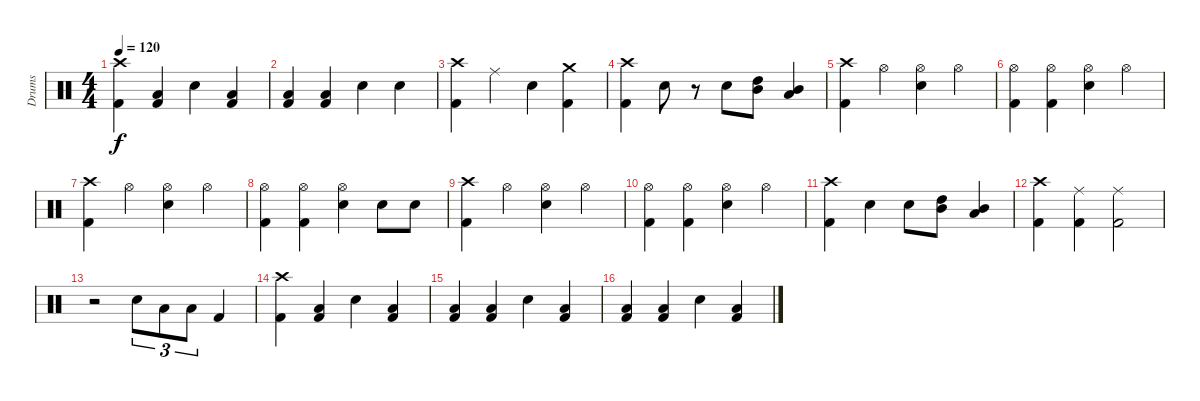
\track ("Drums" "Drums") {instrument percussion}
\staff {score}
\articulation defaults
\ts (4 4)
\tempo 120
\clef neutral
\ks c
("Kick (hit) 2" "Crash high (hit)").4{dy f} ("Kick (hit) 2" "Low Floor Tom (hit)").4 "Snare (hit) 2".4 ("Low Floor Tom (hit)" "Kick (hit) 2").4 |
("Low Floor Tom (hit)" "Kick (hit) 2").4 ("Low Floor Tom (hit)" "Kick (hit) 2").4 "Snare (hit) 2".4 "Snare (hit) 2".4 |
("Kick (hit) 2" "Crash high (hit)").4 "Ride (middle)".4 "Snare (hit) 2".4 ("Kick (hit) 2" "Crash medium (hit)").4 |
("Crash high (hit)" "Kick (hit) 2").4 "Snare (hit) 2".8 r.8 "Snare (hit) 2".8 ("High Tom (hit)" "Mid Tom (hit)").8 ("Mid Tom (hit)" "Low Tom (hit)").4 |
("Crash high (hit)" "Kick (hit) 2").4 "Hi-Hat (open)".4 ("Hi-Hat (open)" "Snare (hit) 2").4 "Hi-Hat (open)".4 |
("Hi-Hat (open)" "Kick (hit) 2").4 ("Hi-Hat (open)" "Kick (hit) 2").4 ("Hi-Hat (open)" "Snare (hit) 2").4 "Hi-Hat (open)".4 |
("Crash high (hit)" "Kick (hit) 2").4 "Hi-Hat (open)".4 ("Hi-Hat (open)" "Snare (hit) 2").4 "Hi-Hat (open)".4 |
("Hi-Hat (open)" "Kick (hit) 2").4 ("Hi-Hat (open)" "Kick (hit) 2").4 ("Hi-Hat (open)" "Snare (hit) 2").4 "Snare (hit) 2".8 "Snare (hit) 2".8 |
("Crash high (hit)" "Kick (hit) 2").4 "Hi-Hat (open)".4 ("Hi-Hat (open)" "Snare (hit) 2").4 "Hi-Hat (open)".4 |
("Hi-Hat (open)" "Kick (hit) 2").4 ("Hi-Hat (open)" "Kick (hit) 2").4 ("Hi-Hat (open)" "Snare (hit) 2").4 "Hi-Hat (open)".4 |
("Crash high (hit)" "Kick (hit) 2").4 "Snare (hit) 2".4 "Snare (hit) 2".8 ("Mid Tom (hit)" "High Tom (hit)").8 ("Low Tom (hit)" "Mid Tom (hit)").4 |
("Kick (hit) 2" "Crash high (hit)").4 ("Kick (hit) 2" "Ride (middle)").4 ("Kick (hit) 2" "Ride (middle)").2 |
r.2 "Snare (hit) 2".8{tu (3 2)} "Low Tom (hit)".8{tu (3 2)} "Low Floor Tom (hit)".8{tu (3 2)} "Kick (hit) 2".4 |
("Kick (hit) 2" "Crash high (hit)").4 ("Kick (hit) 2" "Low Floor Tom (hit)").4 "Snare (hit) 2".4 ("Low Floor Tom (hit)" "Kick (hit) 2").4 |
("Low Floor Tom (hit)" "Kick (hit) 2").4 ("Low Floor Tom (hit)" "Kick (hit) 2").4 "Snare (hit) 2".4 ("Low Floor Tom (hit)" "Kick (hit) 2").4 |
("Kick (hit) 2" "Low Floor Tom (hit)").4 ("Kick (hit) 2" "Low Floor Tom (hit)").4 "Snare (hit) 2".4 ("Low Floor Tom (hit)" "Kick (hit) 2").4
